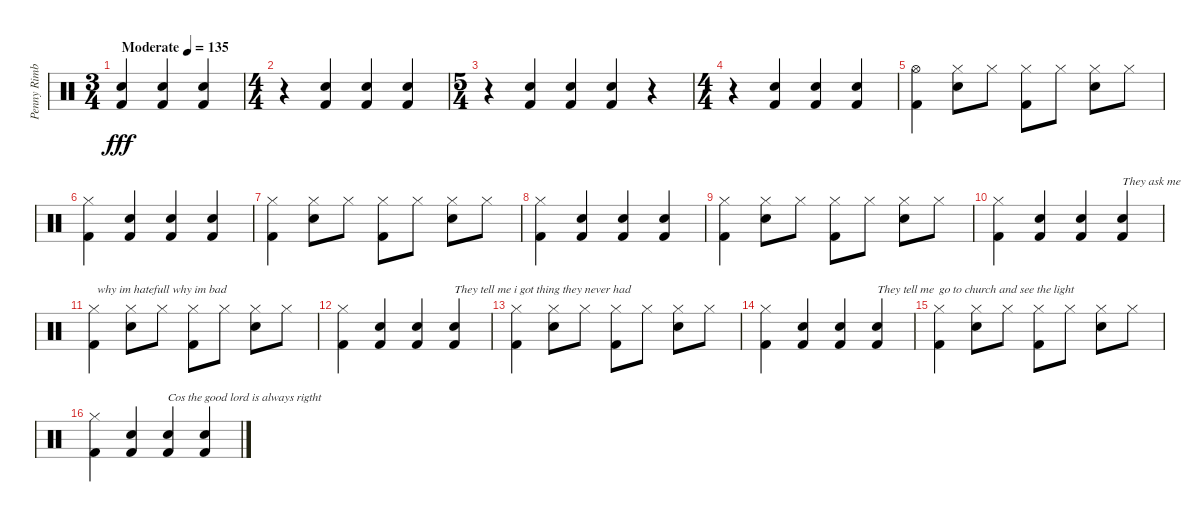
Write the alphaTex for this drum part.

\track ("Penny Rimbaud" "Penny Rimb") {instrument percussion}
\staff {score}
\articulation defaults
\ts (3 4)
\tempo (135 "Moderate")
\clef neutral
\ks c
("Electric Snare (hit)" "Kick (hit) 2").4{dy fff} ("Electric Snare (hit)" "Kick (hit) 2").4 ("Electric Snare (hit)" "Kick (hit) 2").4 |
\ts (4 4)
r.4 ("Electric Snare (hit)" "Kick (hit) 2").4 ("Electric Snare (hit)" "Kick (hit) 2").4 ("Electric Snare (hit)" "Kick (hit) 2").4 |
\ts (5 4)
r.4 ("Electric Snare (hit)" "Kick (hit) 2").4 ("Electric Snare (hit)" "Kick (hit) 2").4 ("Electric Snare (hit)" "Kick (hit) 2").4 r.4 |
\ts (4 4)
r.4 ("Electric Snare (hit)" "Kick (hit) 2").4 ("Electric Snare (hit)" "Kick (hit) 2").4 ("Electric Snare (hit)" "Kick (hit) 2").4 |
("Hi-Hat (open)" "Kick (hit) 2").4 ("Hi-Hat (closed)" "Electric Snare (hit)").8 "Hi-Hat (closed)".8 ("Hi-Hat (closed)" "Kick (hit) 2").8 "Hi-Hat (closed)".8 ("Hi-Hat (closed)" "Electric Snare (hit)").8 "Hi-Hat (closed)".8 |
("Hi-Hat (closed)" "Kick (hit) 2").4 ("Electric Snare (hit)" "Kick (hit) 2").4 ("Electric Snare (hit)" "Kick (hit) 2").4 ("Electric Snare (hit)" "Kick (hit) 2").4 |
("Hi-Hat (closed)" "Kick (hit) 2").4 ("Hi-Hat (closed)" "Electric Snare (hit)").8 "Hi-Hat (closed)".8 ("Hi-Hat (closed)" "Kick (hit) 2").8 "Hi-Hat (closed)".8 ("Hi-Hat (closed)" "Electric Snare (hit)").8 "Hi-Hat (closed)".8 |
("Hi-Hat (closed)" "Kick (hit) 2").4 ("Electric Snare (hit)" "Kick (hit) 2").4 ("Electric Snare (hit)" "Kick (hit) 2").4 ("Electric Snare (hit)" "Kick (hit) 2").4 |
("Hi-Hat (closed)" "Kick (hit) 2").4 ("Hi-Hat (closed)" "Electric Snare (hit)").8 "Hi-Hat (closed)".8 ("Hi-Hat (closed)" "Kick (hit) 2").8 "Hi-Hat (closed)".8 ("Hi-Hat (closed)" "Electric Snare (hit)").8 "Hi-Hat (closed)".8 |
("Hi-Hat (closed)" "Kick (hit) 2").4 ("Electric Snare (hit)" "Kick (hit) 2").4 ("Electric Snare (hit)" "Kick (hit) 2").4 ("Electric Snare (hit)" "Kick (hit) 2").4{txt "They ask me"} |
("Hi-Hat (closed)" "Kick (hit) 2").4{txt " why im hatefull why im bad"} ("Hi-Hat (closed)" "Electric Snare (hit)").8 "Hi-Hat (closed)".8 ("Hi-Hat (closed)" "Kick (hit) 2").8 "Hi-Hat (closed)".8 ("Hi-Hat (closed)" "Electric Snare (hit)").8 "Hi-Hat (closed)".8 |
("Hi-Hat (closed)" "Kick (hit) 2").4 ("Electric Snare (hit)" "Kick (hit) 2").4 ("Electric Snare (hit)" "Kick (hit) 2").4 ("Electric Snare (hit)" "Kick (hit) 2").4{txt "They tell me i got thing they never had"} |
("Hi-Hat (closed)" "Kick (hit) 2").4 ("Hi-Hat (closed)" "Electric Snare (hit)").8 "Hi-Hat (closed)".8 ("Hi-Hat (closed)" "Kick (hit) 2").8 "Hi-Hat (closed)".8 ("Hi-Hat (closed)" "Electric Snare (hit)").8 "Hi-Hat (closed)".8 |
("Hi-Hat (closed)" "Kick (hit) 2").4 ("Electric Snare (hit)" "Kick (hit) 2").4 ("Electric Snare (hit)" "Kick (hit) 2").4 ("Electric Snare (hit)" "Kick (hit) 2").4{txt "They tell me "} |
("Hi-Hat (closed)" "Kick (hit) 2").4{txt "go to church and see the light"} ("Hi-Hat (closed)" "Electric Snare (hit)").8 "Hi-Hat (closed)".8 ("Hi-Hat (closed)" "Kick (hit) 2").8 "Hi-Hat (closed)".8 ("Hi-Hat (closed)" "Electric Snare (hit)").8 "Hi-Hat (closed)".8 |
("Hi-Hat (closed)" "Kick (hit) 2").4 ("Electric Snare (hit)" "Kick (hit) 2").4 ("Electric Snare (hit)" "Kick (hit) 2").4{txt "Cos the good lord is always rigtht"} ("Electric Snare (hit)" "Kick (hit) 2").4
